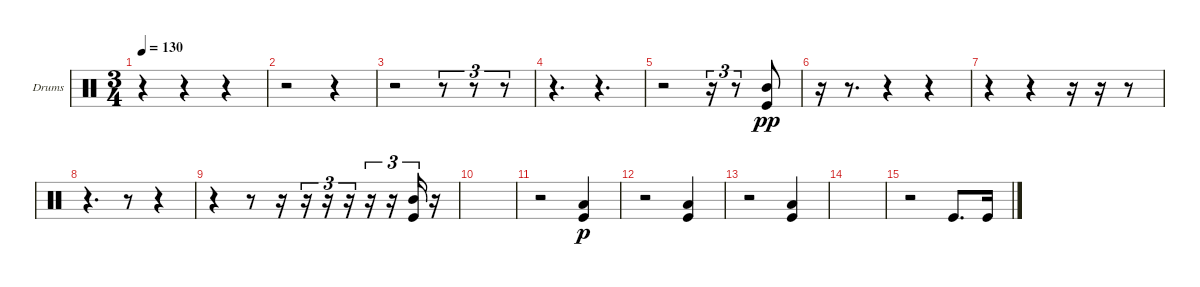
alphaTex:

\bracketExtendMode groupsimilarinstruments
\firstSystemTrackNameOrientation horizontal
\otherSystemsTrackNameOrientation horizontal
\track ("Kick" "Drums") {instrument percussion}
\staff {score}
\articulation defaults
\ts (3 4)
\tempo 130
\clef neutral
\ks c
r.4{dy p} r.4 r.4 |
r.2 r.4 |
r.2 r.8{tu (3 2)} r.8{tu (3 2)} r.8{tu (3 2)} |
r.4{d} r.4{d} |
r.2 r.16{tu (3 2)} r.8{tu (3 2)} ("Kick (hit)" "Mid Tom (hit)").8{dy pp} |
r.16 r.8{d} r.4 r.4 |
r.4 r.4 r.16 r.16 r.8 |
r.4{d} r.8 r.4 |
r.4 r.8 r.16 r.16{tu (3 2)} r.16{tu (3 2)} r.16{tu (3 2)} r.16{tu (3 2)} r.16{tu (3 2)} ("Kick (hit)" "Mid Tom (hit)").16{tu (3 2)} r.16 |
|
r.2 ("Kick (hit)" "Low Tom (hit)").4{dy p} |
r.2 ("Kick (hit)" "Low Tom (hit)").4 |
r.2 ("Kick (hit)" "Low Tom (hit)").4 |
|
r.2 "Kick (hit)".8{d} "Kick (hit)".16
